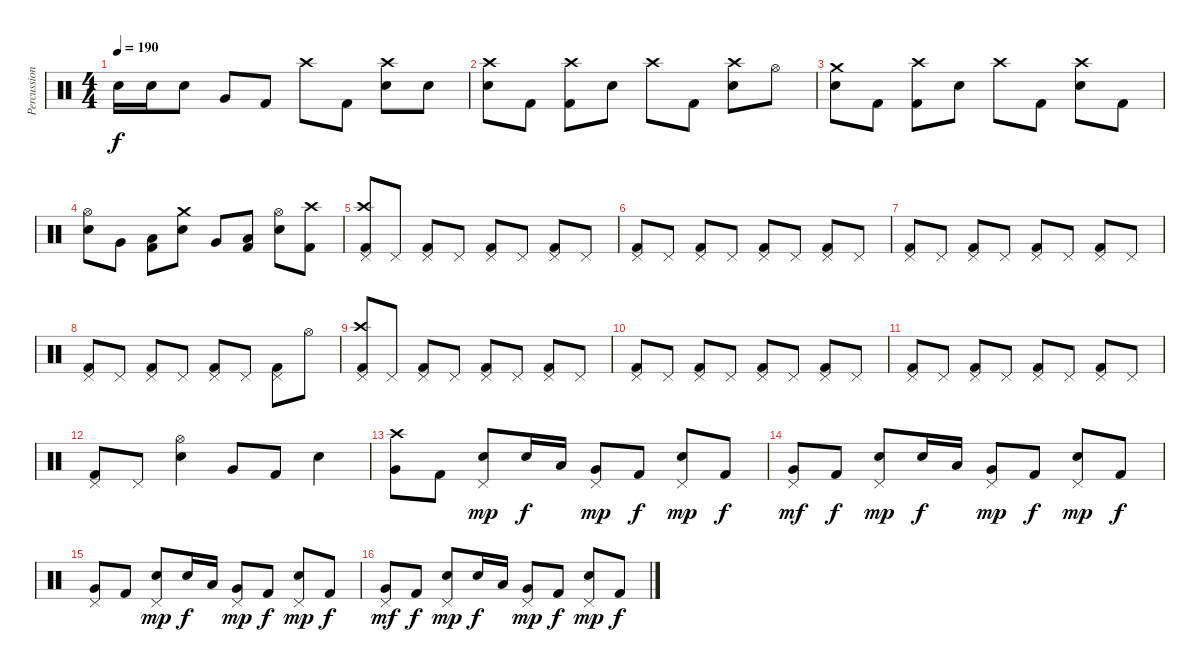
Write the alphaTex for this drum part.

\track ("Percussions" "Percussion") {instrument percussion}
\staff {score}
\articulation defaults
\ts (4 4)
\tempo 190
\clef neutral
\ks c "Electric Snare (hit)".16{dy f} "Electric Snare (hit)".16 "Electric Snare (hit)".8 "Very Low Tom (hit)".8 "Kick (hit) 2".8 "Crash high (hit)".8 "Kick (hit) 2".8
("Crash high (hit)" "Electric Snare (hit)").8 "Electric Snare (hit)".8 |
("Crash high (hit)" "Electric Snare (hit)").8 "Kick (hit) 2".8 ("Crash high (hit)" "Kick (hit) 2").8 "Electric Snare (hit)".8 "Crash high (hit)".8 "Kick (hit) 2".8 ("Crash high (hit)" "Electric Snare (hit)").8 "Hi-Hat (open)".8 |
("Crash medium (hit)" "Electric Snare (hit)").8 "Kick (hit) 2".8 ("Crash high (hit)" "Kick (hit) 2").8 "Electric Snare (hit)".8 "Crash high (hit)".8 "Kick (hit) 2".8 ("Crash high (hit)" "Electric Snare (hit)").8 "Kick (hit) 2".8 |
("Hi-Hat (open)" "Electric Snare (hit)").8 "Very Low Tom (hit)".8 ("Low Floor Tom (hit)" "Kick (hit) 2").8 ("Crash medium (hit)" "Electric Snare (hit)").8 "Very Low Tom (hit)".8 ("Low Floor Tom (hit)" "Kick (hit) 2").8 ("Hi-Hat (open)" "Electric Snare (hit)").8 ("Crash high (hit)" "Kick (hit) 2").8 |
("Crash high (hit)" "Pedal Hi-Hat (hit)" "Kick (hit) 2").8 "Pedal Hi-Hat (hit)".8 ("Pedal Hi-Hat (hit)" "Kick (hit) 2").8 "Pedal Hi-Hat (hit)".8 ("Pedal Hi-Hat (hit)" "Kick (hit) 2").8 "Pedal Hi-Hat (hit)".8 ("Pedal Hi-Hat (hit)" "Kick (hit) 2").8 "Pedal Hi-Hat (hit)".8 |
("Pedal Hi-Hat (hit)" "Kick (hit) 2").8 "Pedal Hi-Hat (hit)".8 ("Pedal Hi-Hat (hit)" "Kick (hit) 2").8 "Pedal Hi-Hat (hit)".8 ("Pedal Hi-Hat (hit)" "Kick (hit) 2").8 "Pedal Hi-Hat (hit)".8 ("Pedal Hi-Hat (hit)" "Kick (hit) 2").8 "Pedal Hi-Hat (hit)".8 |
("Pedal Hi-Hat (hit)" "Kick (hit) 2").8 "Pedal Hi-Hat (hit)".8 ("Pedal Hi-Hat (hit)" "Kick (hit) 2").8 "Pedal Hi-Hat (hit)".8 ("Pedal Hi-Hat (hit)" "Kick (hit) 2").8 "Pedal Hi-Hat (hit)".8 ("Pedal Hi-Hat (hit)" "Kick (hit) 2").8 "Pedal Hi-Hat (hit)".8 |
("Pedal Hi-Hat (hit)" "Kick (hit) 2").8 "Pedal Hi-Hat (hit)".8 ("Pedal Hi-Hat (hit)" "Kick (hit) 2").8 "Pedal Hi-Hat (hit)".8 ("Pedal Hi-Hat (hit)" "Kick (hit) 2").8 "Pedal Hi-Hat (hit)".8 ("Pedal Hi-Hat (hit)" "Kick (hit) 2").8 "Hi-Hat (open)".8 |
("Crash high (hit)" "Pedal Hi-Hat (hit)" "Kick (hit) 2").8 "Pedal Hi-Hat (hit)".8 ("Pedal Hi-Hat (hit)" "Kick (hit) 2").8 "Pedal Hi-Hat (hit)".8 ("Pedal Hi-Hat (hit)" "Kick (hit) 2").8 "Pedal Hi-Hat (hit)".8 ("Pedal Hi-Hat (hit)" "Kick (hit) 2").8 "Pedal Hi-Hat (hit)".8 |
("Pedal Hi-Hat (hit)" "Kick (hit) 2").8 "Pedal Hi-Hat (hit)".8 ("Pedal Hi-Hat (hit)" "Kick (hit) 2").8 "Pedal Hi-Hat (hit)".8 ("Pedal Hi-Hat (hit)" "Kick (hit) 2").8 "Pedal Hi-Hat (hit)".8 ("Pedal Hi-Hat (hit)" "Kick (hit) 2").8 "Pedal Hi-Hat (hit)".8 |
("Pedal Hi-Hat (hit)" "Kick (hit) 2").8 "Pedal Hi-Hat (hit)".8 ("Pedal Hi-Hat (hit)" "Kick (hit) 2").8 "Pedal Hi-Hat (hit)".8 ("Pedal Hi-Hat (hit)" "Kick (hit) 2").8 "Pedal Hi-Hat (hit)".8 ("Pedal Hi-Hat (hit)" "Kick (hit) 2").8 "Pedal Hi-Hat (hit)".8 |
("Pedal Hi-Hat (hit)" "Kick (hit) 2").8 "Pedal Hi-Hat (hit)".8 ("Hi-Hat (open)" "Electric Snare (hit)").4 "Very Low Tom (hit)".8 "Kick (hit) 2".8 "Electric Snare (hit)".4 |
("Crash high (hit)" "Very Low Tom (hit)").8 "Kick (hit) 2".8 ("Pedal Hi-Hat (hit)" "Electric Snare (hit)").8{dy mp} "Electric Snare (hit)".16{dy f} "Low Tom (hit)".16 ("Pedal Hi-Hat (hit)" "Very Low Tom (hit)").8{dy mp} "Kick (hit) 2".8{dy f} ("Pedal Hi-Hat (hit)" "Electric Snare (hit)").8{dy mp} "Kick (hit) 2".8{dy f} |
("Pedal Hi-Hat (hit)" "Very Low Tom (hit)").8{dy mf} "Kick (hit) 2".8{dy f} ("Pedal Hi-Hat (hit)" "Electric Snare (hit)").8{dy mp} "Electric Snare (hit)".16{dy f} "Low Tom (hit)".16 ("Pedal Hi-Hat (hit)" "Very Low Tom (hit)").8{dy mp} "Kick (hit) 2".8{dy f} ("Pedal Hi-Hat (hit)" "Electric Snare (hit)").8{dy mp} "Kick (hit) 2".8{dy f} |
("Pedal Hi-Hat (hit)" "Very Low Tom (hit)").8 "Kick (hit) 2".8 ("Pedal Hi-Hat (hit)" "Electric Snare (hit)").8{dy mp} "Electric Snare (hit)".16{dy f} "Low Tom (hit)".16 ("Pedal Hi-Hat (hit)" "Very Low Tom (hit)").8{dy mp} "Kick (hit) 2".8{dy f} ("Pedal Hi-Hat (hit)" "Electric Snare (hit)").8{dy mp} "Kick (hit) 2".8{dy f} |
("Pedal Hi-Hat (hit)" "Very Low Tom (hit)").8{dy mf} "Kick (hit) 2".8{dy f} ("Pedal Hi-Hat (hit)" "Electric Snare (hit)").8{dy mp} "Electric Snare (hit)".16{dy f} "Low Tom (hit)".16 ("Pedal Hi-Hat (hit)" "Very Low Tom (hit)").8{dy mp} "Kick (hit) 2".8{dy f} ("Pedal Hi-Hat (hit)" "Electric Snare (hit)").8{dy mp} "Kick (hit) 2".8{dy f}
